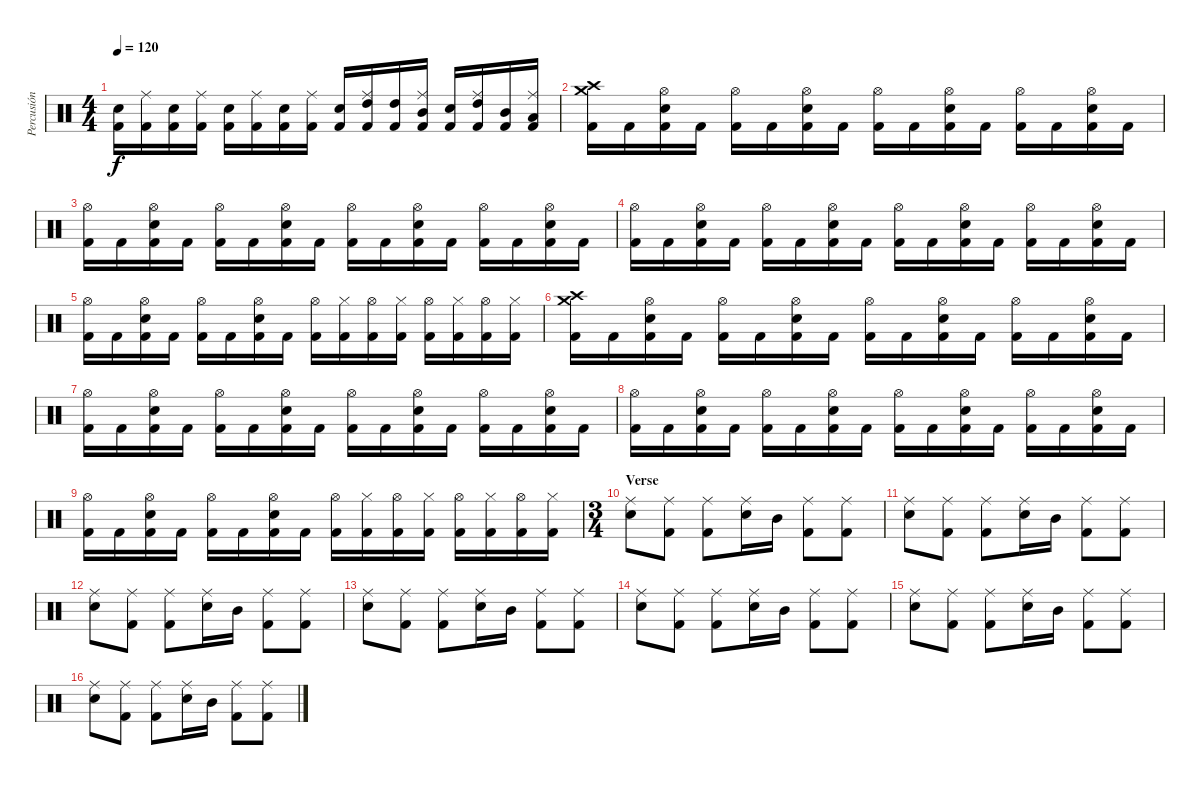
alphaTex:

\track ("Percusión" "Percusión") {instrument percussion}
\staff {score}
\articulation defaults
\ts (4 4)
\tempo 120
\clef neutral
\ks c
("Electric Snare (hit)" "Kick (hit) 2").16{dy f} ("Ride (middle)" "Kick (hit) 2").16 ("Electric Snare (hit)" "Kick (hit) 2").16 ("Ride (middle)" "Kick (hit) 2").16 ("Electric Snare (hit)" "Kick (hit) 2").16 ("Ride (middle)" "Kick (hit) 2").16 ("Electric Snare (hit)" "Kick (hit) 2").16 ("Ride (middle)" "Kick (hit) 2").16 ("Electric Snare (hit)" "Kick (hit) 2").16 ("Ride (middle)" "High Tom (hit)" "Kick (hit) 2").16 ("High Tom (hit)" "Kick (hit) 2").16 ("Ride (middle)" "Mid Tom (hit)" "Kick (hit) 2").16 ("Electric Snare (hit)" "Kick (hit) 2").16 ("Ride (middle)" "High Tom (hit)" "Kick (hit) 2").16 ("Mid Tom (hit)" "Kick (hit) 2").16 ("Ride (middle)" "Low Tom (hit)" "Kick (hit) 2").16 |
("Crash high (hit)" "Crash medium (hit)" "Kick (hit) 2").16 "Kick (hit) 2".16 ("Hi-Hat (open)" "Electric Snare (hit)" "Kick (hit) 2").16 "Kick (hit) 2".16 ("Hi-Hat (open)" "Kick (hit) 2").16 "Kick (hit) 2".16 ("Hi-Hat (open)" "Electric Snare (hit)" "Kick (hit) 2").16 "Kick (hit) 2".16 ("Hi-Hat (open)" "Kick (hit) 2").16 "Kick (hit) 2".16 ("Hi-Hat (open)" "Electric Snare (hit)" "Kick (hit) 2").16 "Kick (hit) 2".16 ("Hi-Hat (open)" "Kick (hit) 2").16 "Kick (hit) 2".16 ("Hi-Hat (open)" "Electric Snare (hit)" "Kick (hit) 2").16 "Kick (hit) 2".16 |
("Hi-Hat (open)" "Kick (hit) 2").16 "Kick (hit) 2".16 ("Hi-Hat (open)" "Electric Snare (hit)" "Kick (hit) 2").16 "Kick (hit) 2".16 ("Hi-Hat (open)" "Kick (hit) 2").16 "Kick (hit) 2".16 ("Hi-Hat (open)" "Electric Snare (hit)" "Kick (hit) 2").16 "Kick (hit) 2".16 ("Hi-Hat (open)" "Kick (hit) 2").16 "Kick (hit) 2".16 ("Hi-Hat (open)" "Electric Snare (hit)" "Kick (hit) 2").16 "Kick (hit) 2".16 ("Hi-Hat (open)" "Kick (hit) 2").16 "Kick (hit) 2".16 ("Hi-Hat (open)" "Electric Snare (hit)" "Kick (hit) 2").16 "Kick (hit) 2".16 |
("Hi-Hat (open)" "Kick (hit) 2").16 "Kick (hit) 2".16 ("Hi-Hat (open)" "Electric Snare (hit)" "Kick (hit) 2").16 "Kick (hit) 2".16 ("Hi-Hat (open)" "Kick (hit) 2").16 "Kick (hit) 2".16 ("Hi-Hat (open)" "Electric Snare (hit)" "Kick (hit) 2").16 "Kick (hit) 2".16 ("Hi-Hat (open)" "Kick (hit) 2").16 "Kick (hit) 2".16 ("Hi-Hat (open)" "Electric Snare (hit)" "Kick (hit) 2").16 "Kick (hit) 2".16 ("Hi-Hat (open)" "Kick (hit) 2").16 "Kick (hit) 2".16 ("Hi-Hat (open)" "Electric Snare (hit)" "Kick (hit) 2").16 "Kick (hit) 2".16 |
("Hi-Hat (open)" "Kick (hit) 2").16 "Kick (hit) 2".16 ("Hi-Hat (open)" "Electric Snare (hit)" "Kick (hit) 2").16 "Kick (hit) 2".16 ("Hi-Hat (open)" "Kick (hit) 2").16 "Kick (hit) 2".16 ("Hi-Hat (open)" "Electric Snare (hit)" "Kick (hit) 2").16 "Kick (hit) 2".16 ("Hi-Hat (open)" "Kick (hit) 2").16 ("Hi-Hat (closed)" "Kick (hit) 2").16 ("Hi-Hat (open)" "Kick (hit) 2").16 ("Hi-Hat (closed)" "Kick (hit) 2").16 ("Hi-Hat (open)" "Kick (hit) 2").16 ("Hi-Hat (closed)" "Kick (hit) 2").16 ("Hi-Hat (open)" "Kick (hit) 2").16 ("Hi-Hat (closed)" "Kick (hit) 2").16 |
("Crash high (hit)" "Crash medium (hit)" "Kick (hit) 2").16 "Kick (hit) 2".16 ("Hi-Hat (open)" "Electric Snare (hit)" "Kick (hit) 2").16 "Kick (hit) 2".16 ("Hi-Hat (open)" "Kick (hit) 2").16 "Kick (hit) 2".16 ("Hi-Hat (open)" "Electric Snare (hit)" "Kick (hit) 2").16 "Kick (hit) 2".16 ("Hi-Hat (open)" "Kick (hit) 2").16 "Kick (hit) 2".16 ("Hi-Hat (open)" "Electric Snare (hit)" "Kick (hit) 2").16 "Kick (hit) 2".16 ("Hi-Hat (open)" "Kick (hit) 2").16 "Kick (hit) 2".16 ("Hi-Hat (open)" "Electric Snare (hit)" "Kick (hit) 2").16 "Kick (hit) 2".16 |
("Hi-Hat (open)" "Kick (hit) 2").16 "Kick (hit) 2".16 ("Hi-Hat (open)" "Electric Snare (hit)" "Kick (hit) 2").16 "Kick (hit) 2".16 ("Hi-Hat (open)" "Kick (hit) 2").16 "Kick (hit) 2".16 ("Hi-Hat (open)" "Electric Snare (hit)" "Kick (hit) 2").16 "Kick (hit) 2".16 ("Hi-Hat (open)" "Kick (hit) 2").16 "Kick (hit) 2".16 ("Hi-Hat (open)" "Electric Snare (hit)" "Kick (hit) 2").16 "Kick (hit) 2".16 ("Hi-Hat (open)" "Kick (hit) 2").16 "Kick (hit) 2".16 ("Hi-Hat (open)" "Electric Snare (hit)" "Kick (hit) 2").16 "Kick (hit) 2".16 |
("Hi-Hat (open)" "Kick (hit) 2").16 "Kick (hit) 2".16 ("Hi-Hat (open)" "Electric Snare (hit)" "Kick (hit) 2").16 "Kick (hit) 2".16 ("Hi-Hat (open)" "Kick (hit) 2").16 "Kick (hit) 2".16 ("Hi-Hat (open)" "Electric Snare (hit)" "Kick (hit) 2").16 "Kick (hit) 2".16 ("Hi-Hat (open)" "Kick (hit) 2").16 "Kick (hit) 2".16 ("Hi-Hat (open)" "Electric Snare (hit)" "Kick (hit) 2").16 "Kick (hit) 2".16 ("Hi-Hat (open)" "Kick (hit) 2").16 "Kick (hit) 2".16 ("Hi-Hat (open)" "Electric Snare (hit)" "Kick (hit) 2").16 "Kick (hit) 2".16 |
("Hi-Hat (open)" "Kick (hit) 2").16 "Kick (hit) 2".16 ("Hi-Hat (open)" "Electric Snare (hit)" "Kick (hit) 2").16 "Kick (hit) 2".16 ("Hi-Hat (open)" "Kick (hit) 2").16 "Kick (hit) 2".16 ("Hi-Hat (open)" "Electric Snare (hit)" "Kick (hit) 2").16 "Kick (hit) 2".16 ("Hi-Hat (open)" "Kick (hit) 2").16 ("Hi-Hat (closed)" "Kick (hit) 2").16 ("Hi-Hat (open)" "Kick (hit) 2").16 ("Hi-Hat (closed)" "Kick (hit) 2").16 ("Hi-Hat (open)" "Kick (hit) 2").16 ("Hi-Hat (closed)" "Kick (hit) 2").16 ("Hi-Hat (open)" "Kick (hit) 2").16 ("Hi-Hat (closed)" "Kick (hit) 2").16 |
\ts (3 4)
\section ("" "Verse")
("Ride (middle)" "Electric Snare (hit)").8 ("Ride (middle)" "Kick (hit) 2").8 ("Ride (middle)" "Kick (hit) 2").8 ("Ride (middle)" "Electric Snare (hit)").16 "Mid Tom (hit)".16 ("Ride (middle)" "Kick (hit) 2").8 ("Ride (middle)" "Kick (hit) 2").8 |
("Ride (middle)" "Electric Snare (hit)").8 ("Ride (middle)" "Kick (hit) 2").8 ("Ride (middle)" "Kick (hit) 2").8 ("Ride (middle)" "Electric Snare (hit)").16 "Mid Tom (hit)".16 ("Ride (middle)" "Kick (hit) 2").8 ("Ride (middle)" "Kick (hit) 2").8 |
("Ride (middle)" "Electric Snare (hit)").8 ("Ride (middle)" "Kick (hit) 2").8 ("Ride (middle)" "Kick (hit) 2").8 ("Ride (middle)" "Electric Snare (hit)").16 "Mid Tom (hit)".16 ("Ride (middle)" "Kick (hit) 2").8 ("Ride (middle)" "Kick (hit) 2").8 |
("Ride (middle)" "Electric Snare (hit)").8 ("Ride (middle)" "Kick (hit) 2").8 ("Ride (middle)" "Kick (hit) 2").8 ("Ride (middle)" "Electric Snare (hit)").16 "Mid Tom (hit)".16 ("Ride (middle)" "Kick (hit) 2").8 ("Ride (middle)" "Kick (hit) 2").8 |
("Ride (middle)" "Electric Snare (hit)").8 ("Ride (middle)" "Kick (hit) 2").8 ("Ride (middle)" "Kick (hit) 2").8 ("Ride (middle)" "Electric Snare (hit)").16 "Mid Tom (hit)".16 ("Ride (middle)" "Kick (hit) 2").8 ("Ride (middle)" "Kick (hit) 2").8 |
("Ride (middle)" "Electric Snare (hit)").8 ("Ride (middle)" "Kick (hit) 2").8 ("Ride (middle)" "Kick (hit) 2").8 ("Ride (middle)" "Electric Snare (hit)").16 "Mid Tom (hit)".16 ("Ride (middle)" "Kick (hit) 2").8 ("Ride (middle)" "Kick (hit) 2").8 |
("Ride (middle)" "Electric Snare (hit)").8 ("Ride (middle)" "Kick (hit) 2").8 ("Ride (middle)" "Kick (hit) 2").8 ("Ride (middle)" "Electric Snare (hit)").16 "Mid Tom (hit)".16 ("Ride (middle)" "Kick (hit) 2").8 ("Ride (middle)" "Kick (hit) 2").8
